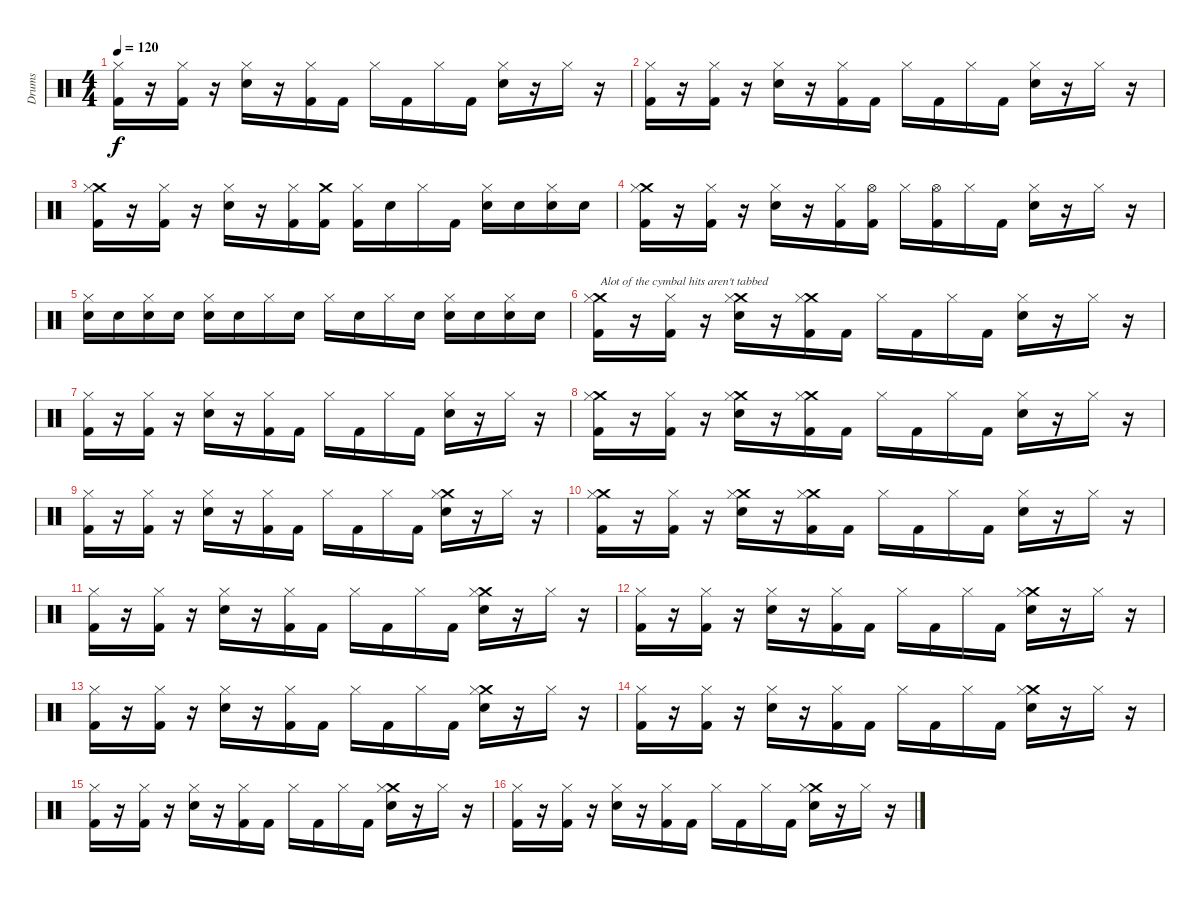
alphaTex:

\track ("Drums" "Drums") {instrument percussion}
\staff {score}
\articulation defaults
\ts (4 4)
\tempo 120
\clef neutral
\ks c
("Hi-Hat (closed)" "Kick (hit) 2").16{dy f} r.16 ("Hi-Hat (closed)" "Kick (hit) 2").16 r.16 ("Hi-Hat (closed)" "Snare (hit) 2").16 r.16 ("Hi-Hat (closed)" "Kick (hit) 2").16 "Kick (hit) 2".16 "Hi-Hat (closed)".16 "Kick (hit) 2".16 "Hi-Hat (closed)".16 "Kick (hit) 2".16 ("Hi-Hat (closed)" "Snare (hit) 2").16 r.16 "Hi-Hat (closed)".16 r.16 |
("Hi-Hat (closed)" "Kick (hit) 2").16 r.16 ("Hi-Hat (closed)" "Kick (hit) 2").16 r.16 ("Hi-Hat (closed)" "Snare (hit) 2").16 r.16 ("Hi-Hat (closed)" "Kick (hit) 2").16 "Kick (hit) 2".16 "Hi-Hat (closed)".16 "Kick (hit) 2".16 "Hi-Hat (closed)".16 "Kick (hit) 2".16 ("Hi-Hat (closed)" "Snare (hit) 2").16 r.16 "Hi-Hat (closed)".16 r.16 |
("Crash medium (hit)" "Hi-Hat (closed)" "Kick (hit) 2").16 r.16 ("Hi-Hat (closed)" "Kick (hit) 2").16 r.16 ("Hi-Hat (closed)" "Snare (hit) 2").16 r.16 ("Hi-Hat (closed)" "Kick (hit) 2").16 ("Crash medium (hit)" "Kick (hit) 2").16 ("Hi-Hat (closed)" "Kick (hit) 2").16 "Snare (hit) 2".16 "Hi-Hat (closed)".16 "Kick (hit) 2".16 ("Hi-Hat (closed)" "Snare (hit) 2").16 "Snare (hit) 2".16 ("Hi-Hat (closed)" "Snare (hit) 2").16 "Snare (hit) 2".16 |
("Crash medium (hit)" "Hi-Hat (closed)" "Kick (hit) 2").16 r.16 ("Hi-Hat (closed)" "Kick (hit) 2").16 r.16 ("Hi-Hat (closed)" "Snare (hit) 2").16 r.16 ("Hi-Hat (closed)" "Kick (hit) 2").16 ("Hi-Hat (open)" "Kick (hit) 2").16 "Hi-Hat (closed)".16 ("Hi-Hat (open)" "Kick (hit) 2").16 "Hi-Hat (closed)".16 "Kick (hit) 2".16 ("Hi-Hat (closed)" "Snare (hit) 2").16 r.16 "Hi-Hat (closed)".16 r.16 |
("Hi-Hat (closed)" "Snare (hit) 2").16 "Snare (hit) 2".16 ("Hi-Hat (closed)" "Snare (hit) 2").16 "Snare (hit) 2".16 ("Hi-Hat (closed)" "Snare (hit) 2").16 "Snare (hit) 2".16 "Hi-Hat (closed)".16 "Snare (hit) 2".16 "Hi-Hat (closed)".16 "Snare (hit) 2".16 "Hi-Hat (closed)".16 "Snare (hit) 2".16 ("Hi-Hat (closed)" "Snare (hit) 2").16 "Snare (hit) 2".16 ("Hi-Hat (closed)" "Snare (hit) 2").16 "Snare (hit) 2".16 |
("Crash medium (hit)" "Hi-Hat (closed)" "Kick (hit) 2").16{txt "Alot of the cymbal hits aren't tabbed"} r.16 ("Hi-Hat (closed)" "Kick (hit) 2").16 r.16 ("Crash medium (hit)" "Hi-Hat (closed)" "Snare (hit) 2").16 r.16 ("Crash medium (hit)" "Hi-Hat (closed)" "Kick (hit) 2").16 "Kick (hit) 2".16 "Hi-Hat (closed)".16 "Kick (hit) 2".16 "Hi-Hat (closed)".16 "Kick (hit) 2".16 ("Hi-Hat (closed)" "Snare (hit) 2").16 r.16 "Hi-Hat (closed)".16 r.16 |
("Hi-Hat (closed)" "Kick (hit) 2").16 r.16 ("Hi-Hat (closed)" "Kick (hit) 2").16 r.16 ("Hi-Hat (closed)" "Snare (hit) 2").16 r.16 ("Hi-Hat (closed)" "Kick (hit) 2").16 "Kick (hit) 2".16 "Hi-Hat (closed)".16 "Kick (hit) 2".16 "Hi-Hat (closed)".16 "Kick (hit) 2".16 ("Hi-Hat (closed)" "Snare (hit) 2").16 r.16 "Hi-Hat (closed)".16 r.16 |
("Crash medium (hit)" "Hi-Hat (closed)" "Kick (hit) 2").16 r.16 ("Hi-Hat (closed)" "Kick (hit) 2").16 r.16 ("Crash medium (hit)" "Hi-Hat (closed)" "Snare (hit) 2").16 r.16 ("Crash medium (hit)" "Hi-Hat (closed)" "Kick (hit) 2").16 "Kick (hit) 2".16 "Hi-Hat (closed)".16 "Kick (hit) 2".16 "Hi-Hat (closed)".16 "Kick (hit) 2".16 ("Hi-Hat (closed)" "Snare (hit) 2").16 r.16 "Hi-Hat (closed)".16 r.16 |
("Hi-Hat (closed)" "Kick (hit) 2").16 r.16 ("Hi-Hat (closed)" "Kick (hit) 2").16 r.16 ("Hi-Hat (closed)" "Snare (hit) 2").16 r.16 ("Hi-Hat (closed)" "Kick (hit) 2").16 "Kick (hit) 2".16 "Hi-Hat (closed)".16 "Kick (hit) 2".16 "Hi-Hat (closed)".16 "Kick (hit) 2".16 ("Crash medium (hit)" "Hi-Hat (closed)" "Snare (hit) 2").16 r.16 "Hi-Hat (closed)".16 r.16 |
("Crash medium (hit)" "Hi-Hat (closed)" "Kick (hit) 2").16 r.16 ("Hi-Hat (closed)" "Kick (hit) 2").16 r.16 ("Crash medium (hit)" "Hi-Hat (closed)" "Snare (hit) 2").16 r.16 ("Crash medium (hit)" "Hi-Hat (closed)" "Kick (hit) 2").16 "Kick (hit) 2".16 "Hi-Hat (closed)".16 "Kick (hit) 2".16 "Hi-Hat (closed)".16 "Kick (hit) 2".16 ("Hi-Hat (closed)" "Snare (hit) 2").16 r.16 "Hi-Hat (closed)".16 r.16 |
("Hi-Hat (closed)" "Kick (hit) 2").16 r.16 ("Hi-Hat (closed)" "Kick (hit) 2").16 r.16 ("Hi-Hat (closed)" "Snare (hit) 2").16 r.16 ("Hi-Hat (closed)" "Kick (hit) 2").16 "Kick (hit) 2".16 "Hi-Hat (closed)".16 "Kick (hit) 2".16 "Hi-Hat (closed)".16 "Kick (hit) 2".16 ("Crash medium (hit)" "Hi-Hat (closed)" "Snare (hit) 2").16 r.16 "Hi-Hat (closed)".16 r.16 |
("Hi-Hat (closed)" "Kick (hit) 2").16 r.16 ("Hi-Hat (closed)" "Kick (hit) 2").16 r.16 ("Hi-Hat (closed)" "Snare (hit) 2").16 r.16 ("Hi-Hat (closed)" "Kick (hit) 2").16 "Kick (hit) 2".16 "Hi-Hat (closed)".16 "Kick (hit) 2".16 "Hi-Hat (closed)".16 "Kick (hit) 2".16 ("Crash medium (hit)" "Hi-Hat (closed)" "Snare (hit) 2").16 r.16 "Hi-Hat (closed)".16 r.16 |
("Hi-Hat (closed)" "Kick (hit) 2").16 r.16 ("Hi-Hat (closed)" "Kick (hit) 2").16 r.16 ("Hi-Hat (closed)" "Snare (hit) 2").16 r.16 ("Hi-Hat (closed)" "Kick (hit) 2").16 "Kick (hit) 2".16 "Hi-Hat (closed)".16 "Kick (hit) 2".16 "Hi-Hat (closed)".16 "Kick (hit) 2".16 ("Crash medium (hit)" "Hi-Hat (closed)" "Snare (hit) 2").16 r.16 "Hi-Hat (closed)".16 r.16 |
("Hi-Hat (closed)" "Kick (hit) 2").16 r.16 ("Hi-Hat (closed)" "Kick (hit) 2").16 r.16 ("Hi-Hat (closed)" "Snare (hit) 2").16 r.16 ("Hi-Hat (closed)" "Kick (hit) 2").16 "Kick (hit) 2".16 "Hi-Hat (closed)".16 "Kick (hit) 2".16 "Hi-Hat (closed)".16 "Kick (hit) 2".16 ("Crash medium (hit)" "Hi-Hat (closed)" "Snare (hit) 2").16 r.16 "Hi-Hat (closed)".16 r.16 |
("Hi-Hat (closed)" "Kick (hit) 2").16 r.16 ("Hi-Hat (closed)" "Kick (hit) 2").16 r.16 ("Hi-Hat (closed)" "Snare (hit) 2").16 r.16 ("Hi-Hat (closed)" "Kick (hit) 2").16 "Kick (hit) 2".16 "Hi-Hat (closed)".16 "Kick (hit) 2".16 "Hi-Hat (closed)".16 "Kick (hit) 2".16 ("Crash medium (hit)" "Hi-Hat (closed)" "Snare (hit) 2").16 r.16 "Hi-Hat (closed)".16 r.16 |
("Hi-Hat (closed)" "Kick (hit) 2").16 r.16 ("Hi-Hat (closed)" "Kick (hit) 2").16 r.16 ("Hi-Hat (closed)" "Snare (hit) 2").16 r.16 ("Hi-Hat (closed)" "Kick (hit) 2").16 "Kick (hit) 2".16 "Hi-Hat (closed)".16 "Kick (hit) 2".16 "Hi-Hat (closed)".16 "Kick (hit) 2".16 ("Crash medium (hit)" "Hi-Hat (closed)" "Snare (hit) 2").16 r.16 "Hi-Hat (closed)".16 r.16
